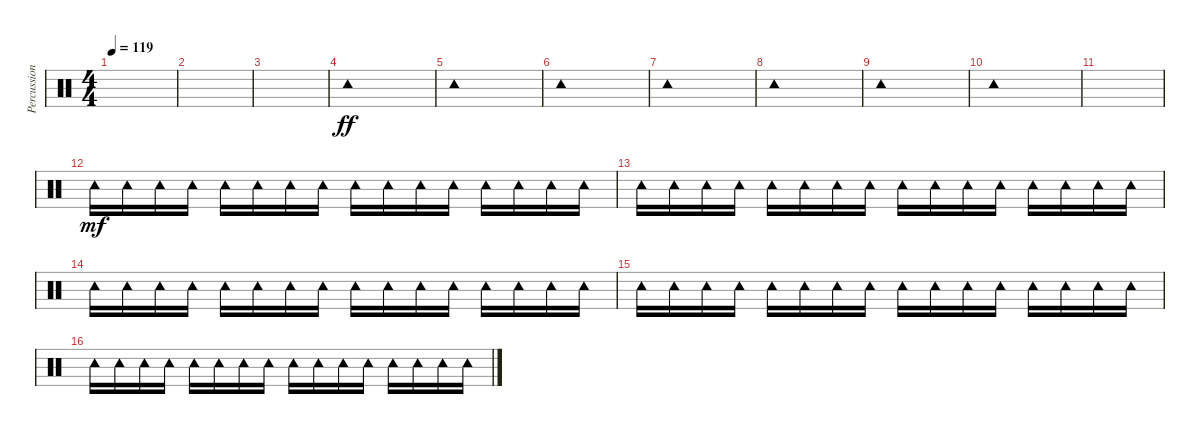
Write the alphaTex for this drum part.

\track ("Percussions" "Percussion") {instrument percussion}
\staff {score}
\articulation defaults
\ts (4 4)
\tempo 119
\clef neutral
\ks c
|
|
|
"Tambourine (hit)".1{dy ff} |
"Tambourine (hit)".1 |
"Tambourine (hit)".1 |
"Tambourine (hit)".1 |
"Tambourine (hit)".1 |
"Tambourine (hit)".1 |
"Tambourine (hit)".1 |
|
"Tambourine (hit)".16{dy mf} "Tambourine (hit)".16 "Tambourine (hit)".16 "Tambourine (hit)".16 "Tambourine (hit)".16 "Tambourine (hit)".16 "Tambourine (hit)".16 "Tambourine (hit)".16 "Tambourine (hit)".16 "Tambourine (hit)".16 "Tambourine (hit)".16 "Tambourine (hit)".16 "Tambourine (hit)".16 "Tambourine (hit)".16 "Tambourine (hit)".16 "Tambourine (hit)".16 |
"Tambourine (hit)".16 "Tambourine (hit)".16 "Tambourine (hit)".16 "Tambourine (hit)".16 "Tambourine (hit)".16 "Tambourine (hit)".16 "Tambourine (hit)".16 "Tambourine (hit)".16 "Tambourine (hit)".16 "Tambourine (hit)".16 "Tambourine (hit)".16 "Tambourine (hit)".16 "Tambourine (hit)".16 "Tambourine (hit)".16 "Tambourine (hit)".16 "Tambourine (hit)".16 |
"Tambourine (hit)".16 "Tambourine (hit)".16 "Tambourine (hit)".16 "Tambourine (hit)".16 "Tambourine (hit)".16 "Tambourine (hit)".16 "Tambourine (hit)".16 "Tambourine (hit)".16 "Tambourine (hit)".16 "Tambourine (hit)".16 "Tambourine (hit)".16 "Tambourine (hit)".16 "Tambourine (hit)".16 "Tambourine (hit)".16 "Tambourine (hit)".16 "Tambourine (hit)".16 |
"Tambourine (hit)".16 "Tambourine (hit)".16 "Tambourine (hit)".16 "Tambourine (hit)".16 "Tambourine (hit)".16 "Tambourine (hit)".16 "Tambourine (hit)".16 "Tambourine (hit)".16 "Tambourine (hit)".16 "Tambourine (hit)".16 "Tambourine (hit)".16 "Tambourine (hit)".16 "Tambourine (hit)".16 "Tambourine (hit)".16 "Tambourine (hit)".16 "Tambourine (hit)".16 |
"Tambourine (hit)".16 "Tambourine (hit)".16 "Tambourine (hit)".16 "Tambourine (hit)".16 "Tambourine (hit)".16 "Tambourine (hit)".16 "Tambourine (hit)".16 "Tambourine (hit)".16 "Tambourine (hit)".16 "Tambourine (hit)".16 "Tambourine (hit)".16 "Tambourine (hit)".16 "Tambourine (hit)".16 "Tambourine (hit)".16 "Tambourine (hit)".16 "Tambourine (hit)".16
